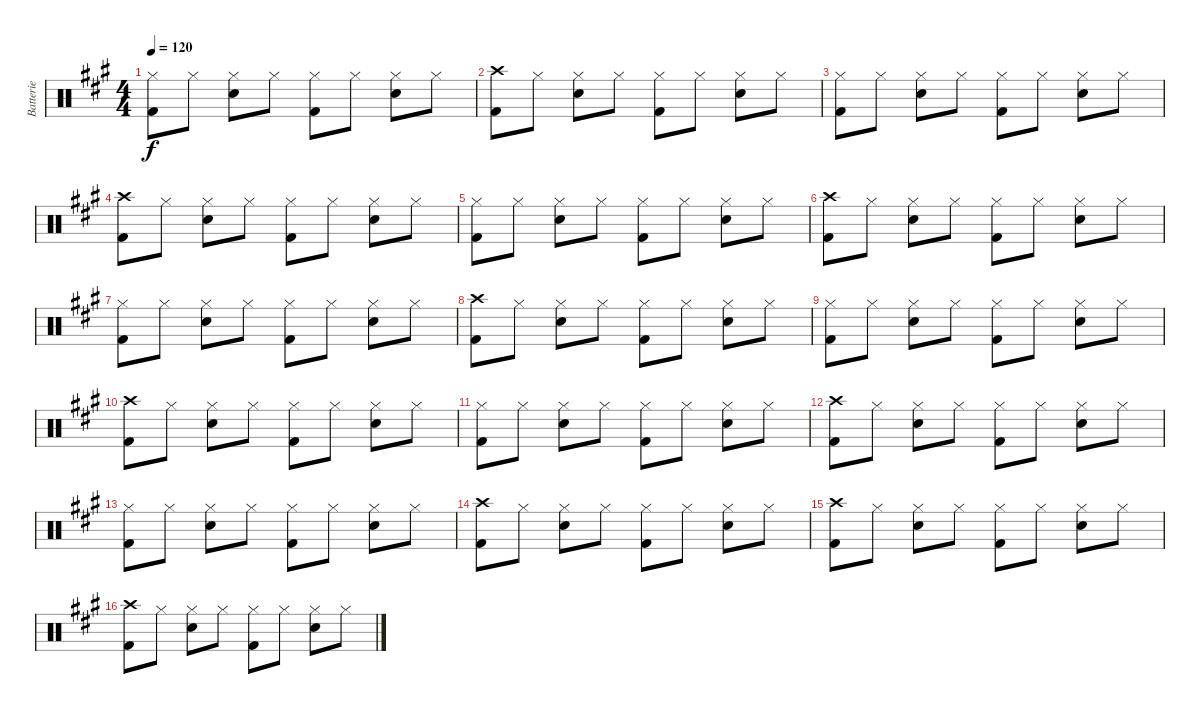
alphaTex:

\track ("Batterie" "Batterie") {instrument percussion}
\staff {score}
\articulation defaults
\ts (4 4)
\tempo 120
\clef neutral
\ks a
("Hi-Hat (closed)" "Kick (hit) 2").8{dy f} "Hi-Hat (closed)".8 ("Hi-Hat (closed)" "Snare (hit) 2").8 "Hi-Hat (closed)".8 ("Hi-Hat (closed)" "Kick (hit) 2").8 "Hi-Hat (closed)".8 ("Hi-Hat (closed)" "Snare (hit) 2").8 "Hi-Hat (closed)".8 |
("Crash high (hit)" "Kick (hit) 2").8 "Hi-Hat (closed)".8 ("Hi-Hat (closed)" "Snare (hit) 2").8 "Hi-Hat (closed)".8 ("Hi-Hat (closed)" "Kick (hit) 2").8 "Hi-Hat (closed)".8 ("Hi-Hat (closed)" "Snare (hit) 2").8 "Hi-Hat (closed)".8 |
("Hi-Hat (closed)" "Kick (hit) 2").8 "Hi-Hat (closed)".8 ("Hi-Hat (closed)" "Snare (hit) 2").8 "Hi-Hat (closed)".8 ("Hi-Hat (closed)" "Kick (hit) 2").8 "Hi-Hat (closed)".8 ("Hi-Hat (closed)" "Snare (hit) 2").8 "Hi-Hat (closed)".8 |
("Crash high (hit)" "Kick (hit) 2").8 "Hi-Hat (closed)".8 ("Hi-Hat (closed)" "Snare (hit) 2").8 "Hi-Hat (closed)".8 ("Hi-Hat (closed)" "Kick (hit) 2").8 "Hi-Hat (closed)".8 ("Hi-Hat (closed)" "Snare (hit) 2").8 "Hi-Hat (closed)".8 |
("Hi-Hat (closed)" "Kick (hit) 2").8 "Hi-Hat (closed)".8 ("Hi-Hat (closed)" "Snare (hit) 2").8 "Hi-Hat (closed)".8 ("Hi-Hat (closed)" "Kick (hit) 2").8 "Hi-Hat (closed)".8 ("Hi-Hat (closed)" "Snare (hit) 2").8 "Hi-Hat (closed)".8 |
("Crash high (hit)" "Kick (hit) 2").8 "Hi-Hat (closed)".8 ("Hi-Hat (closed)" "Snare (hit) 2").8 "Hi-Hat (closed)".8 ("Hi-Hat (closed)" "Kick (hit) 2").8 "Hi-Hat (closed)".8 ("Hi-Hat (closed)" "Snare (hit) 2").8 "Hi-Hat (closed)".8 |
("Hi-Hat (closed)" "Kick (hit) 2").8 "Hi-Hat (closed)".8 ("Hi-Hat (closed)" "Snare (hit) 2").8 "Hi-Hat (closed)".8 ("Hi-Hat (closed)" "Kick (hit) 2").8 "Hi-Hat (closed)".8 ("Hi-Hat (closed)" "Snare (hit) 2").8 "Hi-Hat (closed)".8 |
("Crash high (hit)" "Kick (hit) 2").8 "Hi-Hat (closed)".8 ("Hi-Hat (closed)" "Snare (hit) 2").8 "Hi-Hat (closed)".8 ("Hi-Hat (closed)" "Kick (hit) 2").8 "Hi-Hat (closed)".8 ("Hi-Hat (closed)" "Snare (hit) 2").8 "Hi-Hat (closed)".8 |
("Hi-Hat (closed)" "Kick (hit) 2").8 "Hi-Hat (closed)".8 ("Hi-Hat (closed)" "Snare (hit) 2").8 "Hi-Hat (closed)".8 ("Hi-Hat (closed)" "Kick (hit) 2").8 "Hi-Hat (closed)".8 ("Hi-Hat (closed)" "Snare (hit) 2").8 "Hi-Hat (closed)".8 |
("Crash high (hit)" "Kick (hit) 2").8 "Hi-Hat (closed)".8 ("Hi-Hat (closed)" "Snare (hit) 2").8 "Hi-Hat (closed)".8 ("Hi-Hat (closed)" "Kick (hit) 2").8 "Hi-Hat (closed)".8 ("Hi-Hat (closed)" "Snare (hit) 2").8 "Hi-Hat (closed)".8 |
("Hi-Hat (closed)" "Kick (hit) 2").8 "Hi-Hat (closed)".8 ("Hi-Hat (closed)" "Snare (hit) 2").8 "Hi-Hat (closed)".8 ("Hi-Hat (closed)" "Kick (hit) 2").8 "Hi-Hat (closed)".8 ("Hi-Hat (closed)" "Snare (hit) 2").8 "Hi-Hat (closed)".8 |
("Crash high (hit)" "Kick (hit) 2").8 "Hi-Hat (closed)".8 ("Hi-Hat (closed)" "Snare (hit) 2").8 "Hi-Hat (closed)".8 ("Hi-Hat (closed)" "Kick (hit) 2").8 "Hi-Hat (closed)".8 ("Hi-Hat (closed)" "Snare (hit) 2").8 "Hi-Hat (closed)".8 |
("Hi-Hat (closed)" "Kick (hit) 2").8 "Hi-Hat (closed)".8 ("Hi-Hat (closed)" "Snare (hit) 2").8 "Hi-Hat (closed)".8 ("Hi-Hat (closed)" "Kick (hit) 2").8 "Hi-Hat (closed)".8 ("Hi-Hat (closed)" "Snare (hit) 2").8 "Hi-Hat (closed)".8 |
("Crash high (hit)" "Kick (hit) 2").8 "Hi-Hat (closed)".8 ("Hi-Hat (closed)" "Snare (hit) 2").8 "Hi-Hat (closed)".8 ("Hi-Hat (closed)" "Kick (hit) 2").8 "Hi-Hat (closed)".8 ("Hi-Hat (closed)" "Snare (hit) 2").8 "Hi-Hat (closed)".8 |
("Crash high (hit)" "Kick (hit) 2").8 "Hi-Hat (closed)".8 ("Hi-Hat (closed)" "Snare (hit) 2").8 "Hi-Hat (closed)".8 ("Hi-Hat (closed)" "Kick (hit) 2").8 "Hi-Hat (closed)".8 ("Hi-Hat (closed)" "Snare (hit) 2").8 "Hi-Hat (closed)".8 |
("Crash high (hit)" "Kick (hit) 2").8 "Hi-Hat (closed)".8 ("Hi-Hat (closed)" "Snare (hit) 2").8 "Hi-Hat (closed)".8 ("Hi-Hat (closed)" "Kick (hit) 2").8 "Hi-Hat (closed)".8 ("Hi-Hat (closed)" "Snare (hit) 2").8 "Hi-Hat (closed)".8
